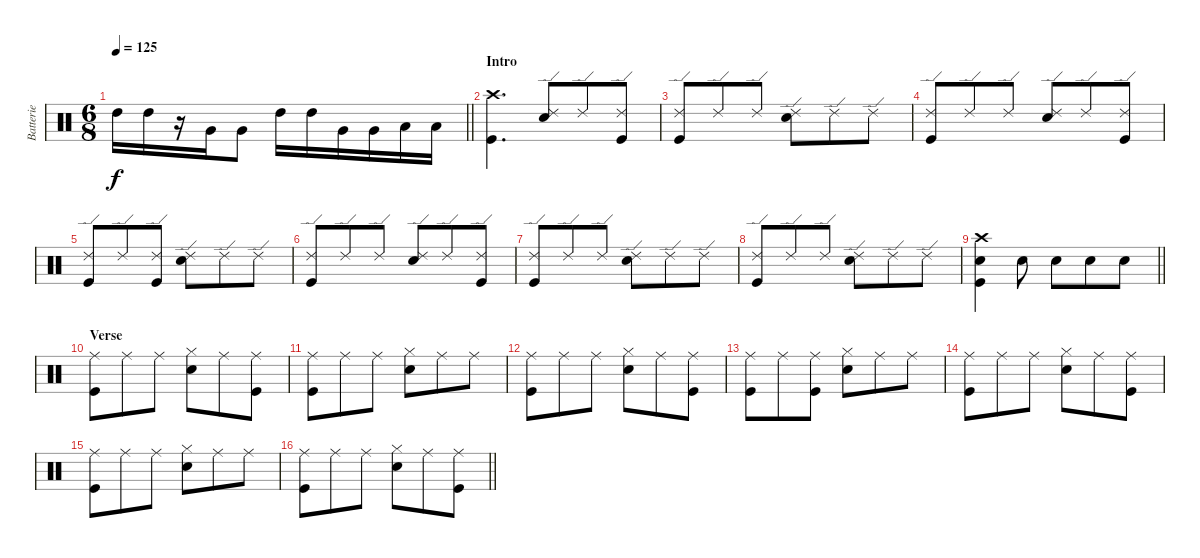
\track ("Batterie" "Batterie") {instrument percussion}
\staff {score}
\articulation defaults
\ts (6 8)
\tempo 125
\clef neutral
\barLineRight lightlight
\ks c "High Tom (hit)".16{dy f} "High Tom (hit)".16
r.16 "Very Low Tom (hit)".16 "Very Low Tom (hit)".8 "High Tom (hit)".16 "High Tom (hit)".16 "Very Low Tom (hit)".16 "Very Low Tom (hit)".16 "Low Floor Tom (hit)".16 "Low Floor Tom (hit)".16 |
\section ("" "Intro")
("Crash high (hit)" "Kick (hit)").4{d} ("Ride (edge) 2" "Snare (hit) 2").8 "Ride (edge) 2".8 ("Ride (edge) 2" "Kick (hit)").8 |
("Ride (edge) 2" "Kick (hit)").8 "Ride (edge) 2".8 "Ride (edge) 2".8 ("Ride (edge) 2" "Snare (hit) 2").8 "Ride (edge) 2".8 "Ride (edge) 2".8 |
("Ride (edge) 2" "Kick (hit)").8 "Ride (edge) 2".8 "Ride (edge) 2".8 ("Ride (edge) 2" "Snare (hit) 2").8 "Ride (edge) 2".8 ("Ride (edge) 2" "Kick (hit)").8 |
("Ride (edge) 2" "Kick (hit)").8 "Ride (edge) 2".8 ("Ride (edge) 2" "Kick (hit)").8 ("Ride (edge) 2" "Snare (hit) 2").8 "Ride (edge) 2".8 "Ride (edge) 2".8 |
("Ride (edge) 2" "Kick (hit)").8 "Ride (edge) 2".8 "Ride (edge) 2".8 ("Ride (edge) 2" "Snare (hit) 2").8 "Ride (edge) 2".8 ("Ride (edge) 2" "Kick (hit)").8 |
("Ride (edge) 2" "Kick (hit)").8 "Ride (edge) 2".8 "Ride (edge) 2".8 ("Ride (edge) 2" "Snare (hit) 2").8 "Ride (edge) 2".8 "Ride (edge) 2".8 |
("Ride (edge) 2" "Kick (hit)").8 "Ride (edge) 2".8 "Ride (edge) 2".8 ("Ride (edge) 2" "Snare (hit) 2").8 "Ride (edge) 2".8 "Ride (edge) 2".8 |
\barLineRight lightlight
("Crash high (hit)" "Snare (hit) 2" "Kick (hit)").4 "Snare (hit) 2".8 "Snare (hit) 2".8 "Snare (hit) 2".8 "Snare (hit) 2".8 |
\section ("" "Verse")
("Ride (middle)" "Kick (hit)").8 "Ride (middle)".8 "Ride (middle)".8 ("Hi-Hat (closed)" "Snare (hit) 2").8 "Ride (middle)".8 ("Ride (middle)" "Kick (hit)").8 |
("Ride (middle)" "Kick (hit)").8 "Ride (middle)".8 "Ride (middle)".8 ("Hi-Hat (closed)" "Snare (hit) 2").8 "Ride (middle)".8 "Ride (middle)".8 |
("Ride (middle)" "Kick (hit)").8 "Ride (middle)".8 "Ride (middle)".8 ("Hi-Hat (closed)" "Snare (hit) 2").8 "Ride (middle)".8 ("Ride (middle)" "Kick (hit)").8 |
("Ride (middle)" "Kick (hit)").8 "Ride (middle)".8 ("Ride (middle)" "Kick (hit)").8 ("Hi-Hat (closed)" "Snare (hit) 2").8 "Ride (middle)".8 "Ride (middle)".8 |
("Ride (middle)" "Kick (hit)").8 "Ride (middle)".8 "Ride (middle)".8 ("Hi-Hat (closed)" "Snare (hit) 2").8 "Ride (middle)".8 ("Ride (middle)" "Kick (hit)").8 |
("Ride (middle)" "Kick (hit)").8 "Ride (middle)".8 "Ride (middle)".8 ("Hi-Hat (closed)" "Snare (hit) 2").8 "Ride (middle)".8 "Ride (middle)".8 |
\barLineRight lightlight
("Ride (middle)" "Kick (hit)").8 "Ride (middle)".8 "Ride (middle)".8 ("Hi-Hat (closed)" "Snare (hit) 2").8 "Ride (middle)".8 ("Ride (middle)" "Kick (hit)").8
